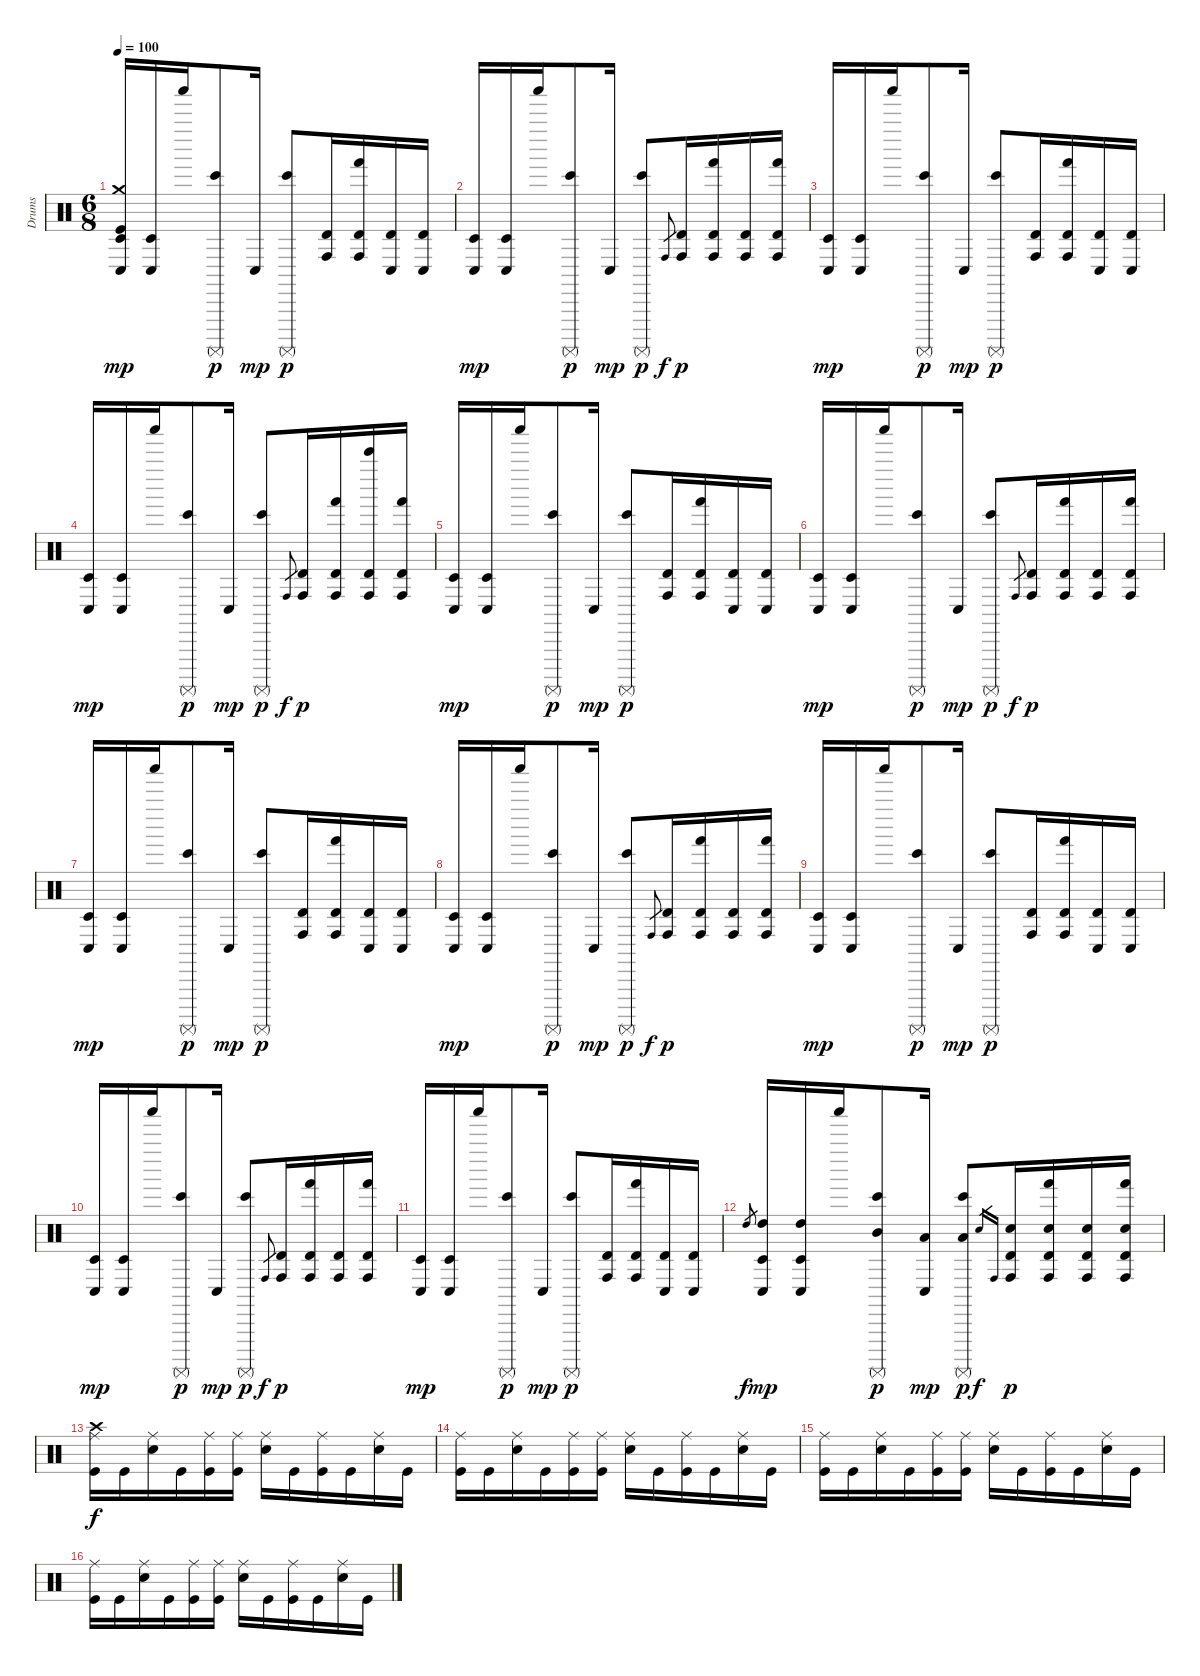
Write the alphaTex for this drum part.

\track ("Drums" "Drums") {instrument percussion}
\staff {score}
\articulation defaults
\ts (6 8)
\tempo 100
\clef neutral
\ks c
("Crash medium (hit)" "Timbale low (hit)" "Conga low (hit)" "Kick (hit)").16{dy mp} ("Timbale low (hit)" "Conga low (hit)").16 "Shaker (hit)".16 ("Surdo (mute)" "Bongo High (hit)").8{dy p} "Conga low (hit)".16{dy mp} ("Surdo (mute)" "Bongo High (hit)").8{dy p} ("Timbale high (hit)" "Conga high (hit)").16 ("Timbale high (hit)" "Conga high (hit)" "Hand (hit)").16 ("Timbale high (hit)" "Conga low (hit)").16 ("Timbale high (hit)" "Conga low (hit)").16 |
("Timbale low (hit)" "Conga low (hit)").16{dy mp} ("Timbale low (hit)" "Conga low (hit)").16 "Shaker (hit)".16 ("Surdo (mute)" "Bongo High (hit)").8{dy p} "Conga low (hit)".16{dy mp} ("Surdo (mute)" "Bongo High (hit)").8{dy p} "Conga high (hit)".8{gr dy f} ("Timbale high (hit)" "Conga high (hit)").16{dy p} ("Timbale high (hit)" "Conga high (hit)" "Hand (hit)").16 ("Timbale high (hit)" "Conga high (hit)").16 ("Timbale high (hit)" "Conga high (hit)" "Hand (hit)").16 |
("Timbale low (hit)" "Conga low (hit)").16{dy mp} ("Timbale low (hit)" "Conga low (hit)").16 "Shaker (hit)".16 ("Surdo (mute)" "Bongo High (hit)").8{dy p} "Conga low (hit)".16{dy mp} ("Surdo (mute)" "Bongo High (hit)").8{dy p} ("Timbale high (hit)" "Conga high (hit)").16 ("Timbale high (hit)" "Conga high (hit)" "Hand (hit)").16 ("Timbale high (hit)" "Conga low (hit)").16 ("Timbale high (hit)" "Conga low (hit)").16 |
("Timbale low (hit)" "Conga low (hit)").16{dy mp} ("Timbale low (hit)" "Conga low (hit)").16 "Shaker (hit)".16 ("Surdo (mute)" "Bongo High (hit)").8{dy p} "Conga low (hit)".16{dy mp} ("Surdo (mute)" "Bongo High (hit)").8{dy p} "Conga high (hit)".8{gr dy f} ("Timbale high (hit)" "Conga high (hit)").16{dy p} ("Timbale high (hit)" "Conga high (hit)" "Hand (hit)").16 ("Bell Tree (hit)" "Timbale high (hit)" "Conga high (hit)").16 ("Timbale high (hit)" "Conga high (hit)" "Hand (hit)").16 |
("Timbale low (hit)" "Conga low (hit)").16{dy mp} ("Timbale low (hit)" "Conga low (hit)").16 "Shaker (hit)".16 ("Surdo (mute)" "Bongo High (hit)").8{dy p} "Conga low (hit)".16{dy mp} ("Surdo (mute)" "Bongo High (hit)").8{dy p} ("Timbale high (hit)" "Conga high (hit)").16 ("Timbale high (hit)" "Conga high (hit)" "Hand (hit)").16 ("Timbale high (hit)" "Conga low (hit)").16 ("Timbale high (hit)" "Conga low (hit)").16 |
("Timbale low (hit)" "Conga low (hit)").16{dy mp} ("Timbale low (hit)" "Conga low (hit)").16 "Shaker (hit)".16 ("Surdo (mute)" "Bongo High (hit)").8{dy p} "Conga low (hit)".16{dy mp} ("Surdo (mute)" "Bongo High (hit)").8{dy p} "Conga high (hit)".8{gr dy f} ("Timbale high (hit)" "Conga high (hit)").16{dy p} ("Timbale high (hit)" "Conga high (hit)" "Hand (hit)").16 ("Timbale high (hit)" "Conga high (hit)").16 ("Timbale high (hit)" "Conga high (hit)" "Hand (hit)").16 |
("Timbale low (hit)" "Conga low (hit)").16{dy mp} ("Timbale low (hit)" "Conga low (hit)").16 "Shaker (hit)".16 ("Surdo (mute)" "Bongo High (hit)").8{dy p} "Conga low (hit)".16{dy mp} ("Surdo (mute)" "Bongo High (hit)").8{dy p} ("Timbale high (hit)" "Conga high (hit)").16 ("Timbale high (hit)" "Conga high (hit)" "Hand (hit)").16 ("Timbale high (hit)" "Conga low (hit)").16 ("Timbale high (hit)" "Conga low (hit)").16 |
("Timbale low (hit)" "Conga low (hit)").16{dy mp} ("Timbale low (hit)" "Conga low (hit)").16 "Shaker (hit)".16 ("Surdo (mute)" "Bongo High (hit)").8{dy p} "Conga low (hit)".16{dy mp} ("Surdo (mute)" "Bongo High (hit)").8{dy p} "Conga high (hit)".8{gr dy f} ("Timbale high (hit)" "Conga high (hit)").16{dy p} ("Timbale high (hit)" "Conga high (hit)" "Hand (hit)").16 ("Timbale high (hit)" "Conga high (hit)").16 ("Timbale high (hit)" "Conga high (hit)" "Hand (hit)").16 |
("Timbale low (hit)" "Conga low (hit)").16{dy mp} ("Timbale low (hit)" "Conga low (hit)").16 "Shaker (hit)".16 ("Surdo (mute)" "Bongo High (hit)").8{dy p} "Conga low (hit)".16{dy mp} ("Surdo (mute)" "Bongo High (hit)").8{dy p} ("Timbale high (hit)" "Conga high (hit)").16 ("Timbale high (hit)" "Conga high (hit)" "Hand (hit)").16 ("Timbale high (hit)" "Conga low (hit)").16 ("Timbale high (hit)" "Conga low (hit)").16 |
("Timbale low (hit)" "Conga low (hit)").16{dy mp} ("Timbale low (hit)" "Conga low (hit)").16 "Shaker (hit)".16 ("Surdo (mute)" "Bongo High (hit)").8{dy p} "Conga low (hit)".16{dy mp} ("Surdo (mute)" "Bongo High (hit)").8{dy p} "Conga high (hit)".8{gr dy f} ("Timbale high (hit)" "Conga high (hit)").16{dy p} ("Timbale high (hit)" "Conga high (hit)" "Hand (hit)").16 ("Timbale high (hit)" "Conga high (hit)").16 ("Timbale high (hit)" "Conga high (hit)" "Hand (hit)").16 |
("Timbale low (hit)" "Conga low (hit)").16{dy mp} ("Timbale low (hit)" "Conga low (hit)").16 "Shaker (hit)".16 ("Surdo (mute)" "Bongo High (hit)").8{dy p} "Conga low (hit)".16{dy mp} ("Surdo (mute)" "Bongo High (hit)").8{dy p} ("Timbale high (hit)" "Conga high (hit)").16 ("Timbale high (hit)" "Conga high (hit)" "Hand (hit)").16 ("Timbale high (hit)" "Conga low (hit)").16 ("Timbale high (hit)" "Conga low (hit)").16 |
"High Tom (hit)".8{gr dy f} ("High Tom (hit)" "Timbale low (hit)" "Conga low (hit)").16{dy mp} ("High Tom (hit)" "Timbale low (hit)" "Conga low (hit)").16 "Shaker (hit)".16 ("Mid Tom (hit)" "Surdo (mute)" "Bongo High (hit)").8{dy p} ("Low Tom (hit)" "Conga low (hit)").16{dy mp} ("Low Tom (hit)" "Surdo (mute)" "Bongo High (hit)").8{dy p} "Electric Snare (hit)".16{gr dy f} "Conga high (hit)".16{gr} ("Electric Snare (hit)" "Timbale high (hit)" "Conga high (hit)").16{dy p} ("Electric Snare (hit)" "Timbale high (hit)" "Conga high (hit)" "Hand (hit)").16 ("Electric Snare (hit)" "Timbale high (hit)" "Conga high (hit)").16 ("Electric Snare (hit)" "Timbale high (hit)" "Conga high (hit)" "Hand (hit)").16 |
("Crash high (hit)" "Ride (middle)" "Kick (hit)").16{dy f} "Kick (hit)".16 ("Ride (middle)" "Electric Snare (hit)").16 "Kick (hit)".16 ("Ride (middle)" "Kick (hit)").16 ("Ride (middle)" "Kick (hit)").16 ("Ride (middle)" "Electric Snare (hit)").16 "Kick (hit)".16 ("Ride (middle)" "Kick (hit)").16 "Kick (hit)".16 ("Ride (middle)" "Electric Snare (hit)").16 "Kick (hit)".16 |
("Ride (middle)" "Kick (hit)").16 "Kick (hit)".16 ("Ride (middle)" "Electric Snare (hit)").16 "Kick (hit)".16 ("Ride (middle)" "Kick (hit)").16 ("Ride (middle)" "Kick (hit)").16 ("Ride (middle)" "Electric Snare (hit)").16 "Kick (hit)".16 ("Ride (middle)" "Kick (hit)").16 "Kick (hit)".16 ("Ride (middle)" "Electric Snare (hit)").16 "Kick (hit)".16 |
("Ride (middle)" "Kick (hit)").16 "Kick (hit)".16 ("Ride (middle)" "Electric Snare (hit)").16 "Kick (hit)".16 ("Ride (middle)" "Kick (hit)").16 ("Ride (middle)" "Kick (hit)").16 ("Ride (middle)" "Electric Snare (hit)").16 "Kick (hit)".16 ("Ride (middle)" "Kick (hit)").16 "Kick (hit)".16 ("Ride (middle)" "Electric Snare (hit)").16 "Kick (hit)".16 |
("Ride (middle)" "Kick (hit)").16 "Kick (hit)".16 ("Ride (middle)" "Electric Snare (hit)").16 "Kick (hit)".16 ("Ride (middle)" "Kick (hit)").16 ("Ride (middle)" "Kick (hit)").16 ("Ride (middle)" "Electric Snare (hit)").16 "Kick (hit)".16 ("Ride (middle)" "Kick (hit)").16 "Kick (hit)".16 ("Ride (middle)" "Electric Snare (hit)").16 "Kick (hit)".16
